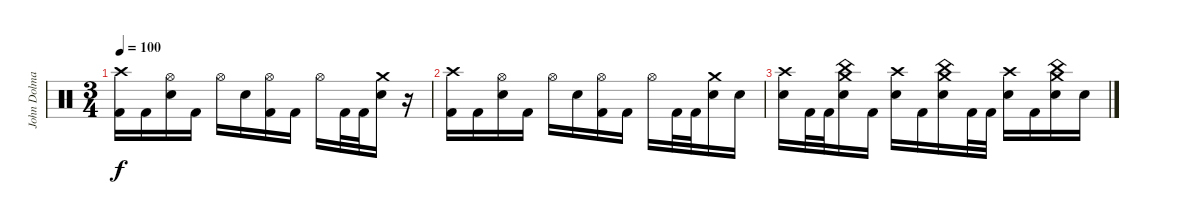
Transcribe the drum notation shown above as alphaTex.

\track ("John Dolmayan" "John Dolma") {instrument percussion}
\staff {score}
\articulation defaults
\ts (3 4)
\tempo 100
\clef neutral
\ks c
("Crash high (hit)" "Kick (hit) 2").16{dy f} "Kick (hit) 2".16 ("Hi-Hat (open)" "Electric Snare (hit)").16 "Kick (hit) 2".16 "Hi-Hat (open)".16 "Electric Snare (hit)".16 ("Hi-Hat (open)" "Kick (hit) 2").16 "Kick (hit) 2".16 "Hi-Hat (open)".16 "Kick (hit) 2".32 "Kick (hit) 2".32 ("Crash medium (hit)" "Electric Snare (hit)").16 r.16 |
("Crash high (hit)" "Kick (hit) 2").16 "Kick (hit) 2".16 ("Hi-Hat (open)" "Electric Snare (hit)").16 "Kick (hit) 2".16 "Hi-Hat (open)".16 "Electric Snare (hit)".16 ("Hi-Hat (open)" "Kick (hit) 2").16 "Kick (hit) 2".16 "Hi-Hat (open)".16 "Kick (hit) 2".32 "Kick (hit) 2".32 ("Crash medium (hit)" "Electric Snare (hit)").16 "Electric Snare (hit)".16 |
("Crash high (hit)" "Electric Snare (hit)").16 "Kick (hit) 2".32 "Kick (hit) 2".32 ("Crash medium (hit)" "China (hit)" "Electric Snare (hit)").16 "Kick (hit) 2".16 ("Crash high (hit)" "Electric Snare (hit)").16 "Kick (hit) 2".16 ("Crash medium (hit)" "China (hit)" "Electric Snare (hit)").16 "Kick (hit) 2".32 "Kick (hit) 2".32 ("Crash high (hit)" "Electric Snare (hit)").16 "Kick (hit) 2".16 ("Crash medium (hit)" "China (hit)" "Electric Snare (hit)").16 "Electric Snare (hit)".16
